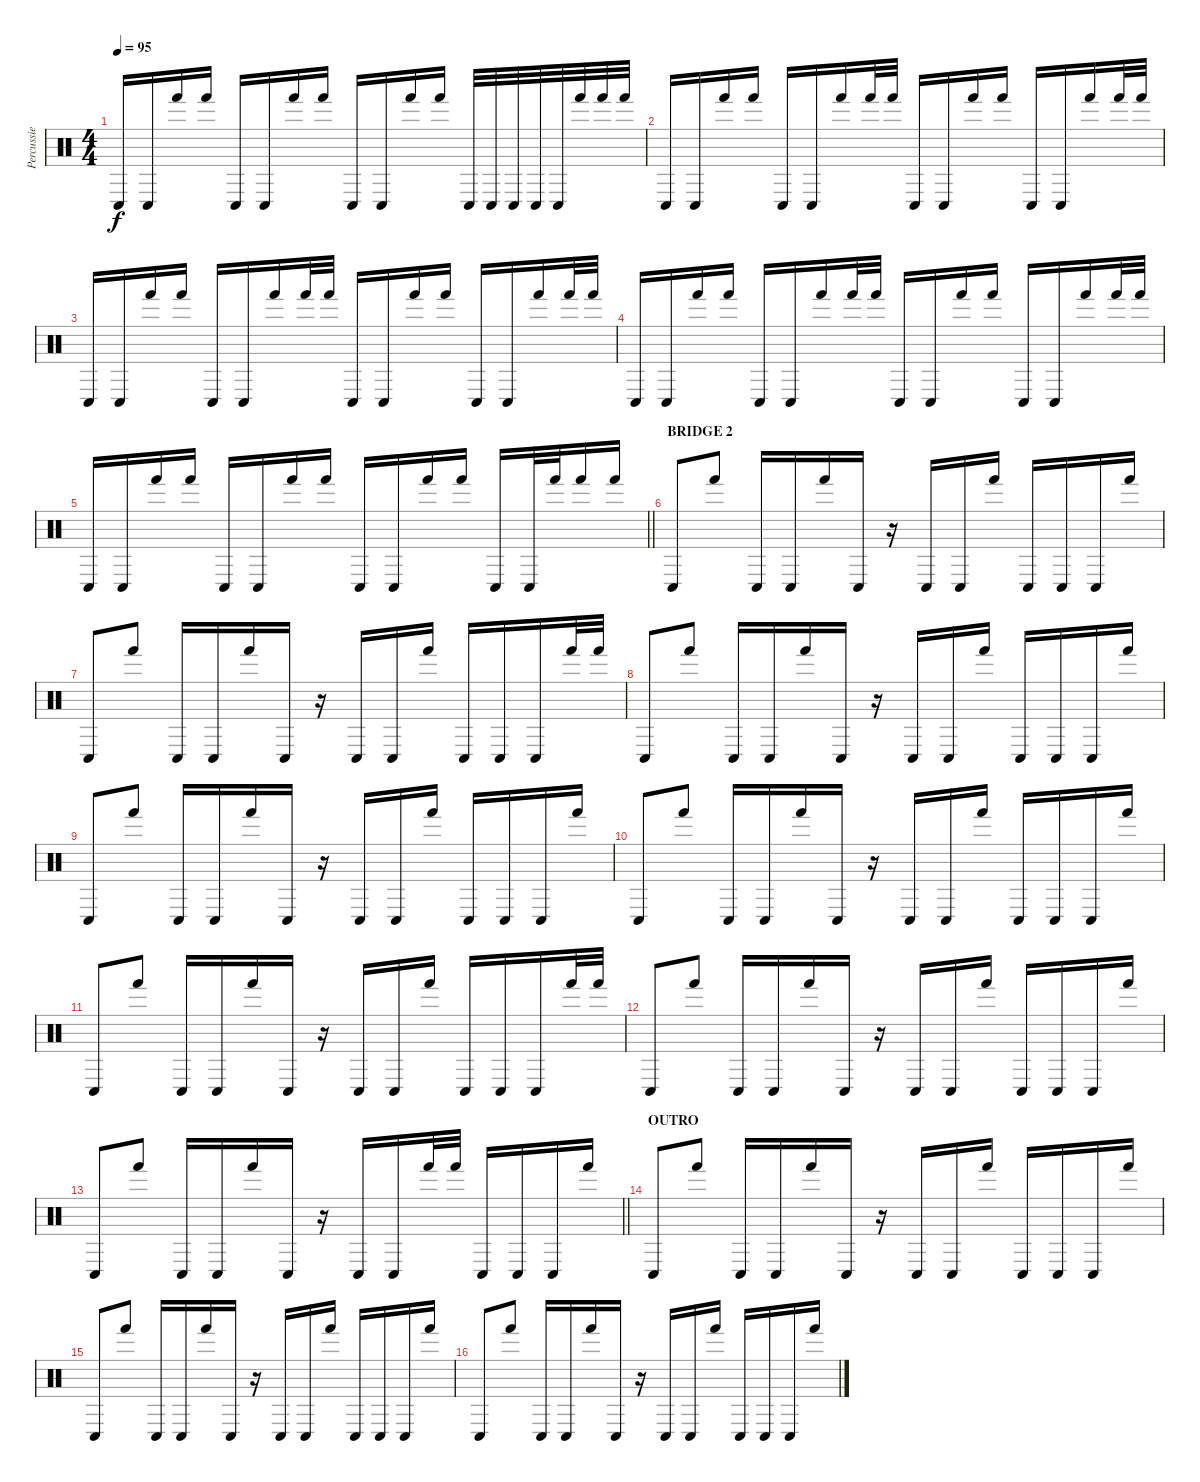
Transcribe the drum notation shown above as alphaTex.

\track ("Percussie" "Percussie") {instrument percussion}
\staff {score}
\articulation defaults
\ts (4 4)
\tempo 95
\clef neutral
\ks c "Conga low (hit)".16{dy f} "Conga low (hit)".16 "Hand (hit)".16 "Hand (hit)".16 "Conga low (hit)".16 "Conga low (hit)".16 "Hand (hit)".16 "Hand (hit)".16 "Conga low (hit)".16 "Conga low (hit)".16 "Hand (hit)".16 "Hand (hit)".16 "Conga low (hit)".32 "Conga low (hit)".32 "Conga low (hit)".32 "Conga low (hit)".32 "Conga low (hit)".32 "Hand (hit)".32 "Hand (hit)".32 "Hand (hit)".32
|
"Conga low (hit)".16 "Conga low (hit)".16 "Hand (hit)".16 "Hand (hit)".16 "Conga low (hit)".16 "Conga low (hit)".16 "Hand (hit)".16 "Hand (hit)".32 "Hand (hit)".32 "Conga low (hit)".16 "Conga low (hit)".16 "Hand (hit)".16 "Hand (hit)".16 "Conga low (hit)".16 "Conga low (hit)".16 "Hand (hit)".16 "Hand (hit)".32 "Hand (hit)".32 |
"Conga low (hit)".16 "Conga low (hit)".16 "Hand (hit)".16 "Hand (hit)".16 "Conga low (hit)".16 "Conga low (hit)".16 "Hand (hit)".16 "Hand (hit)".32 "Hand (hit)".32 "Conga low (hit)".16 "Conga low (hit)".16 "Hand (hit)".16 "Hand (hit)".16 "Conga low (hit)".16 "Conga low (hit)".16 "Hand (hit)".16 "Hand (hit)".32 "Hand (hit)".32 |
"Conga low (hit)".16 "Conga low (hit)".16 "Hand (hit)".16 "Hand (hit)".16 "Conga low (hit)".16 "Conga low (hit)".16 "Hand (hit)".16 "Hand (hit)".32 "Hand (hit)".32 "Conga low (hit)".16 "Conga low (hit)".16 "Hand (hit)".16 "Hand (hit)".16 "Conga low (hit)".16 "Conga low (hit)".16 "Hand (hit)".16 "Hand (hit)".32 "Hand (hit)".32 |
\barLineRight lightlight "Conga low (hit)".16 "Conga low (hit)".16 "Hand (hit)".16 "Hand (hit)".16 "Conga low (hit)".16 "Conga low (hit)".16 "Hand (hit)".16 "Hand (hit)".16 "Conga low (hit)".16 "Conga low (hit)".16 "Hand (hit)".16 "Hand (hit)".16 "Conga low (hit)".16 "Conga low (hit)".32 "Hand (hit)".32 "Hand (hit)".16 "Hand (hit)".16
|
\section ("" "BRIDGE 2")
"Conga low (hit)".8 "Hand (hit)".8 "Conga low (hit)".16 "Conga low (hit)".16 "Hand (hit)".16 "Conga low (hit)".16 r.16 "Conga low (hit)".16 "Conga low (hit)".16 "Hand (hit)".16 "Conga low (hit)".16 "Conga low (hit)".16 "Conga low (hit)".16 "Hand (hit)".16 |
"Conga low (hit)".8 "Hand (hit)".8 "Conga low (hit)".16 "Conga low (hit)".16 "Hand (hit)".16 "Conga low (hit)".16 r.16 "Conga low (hit)".16 "Conga low (hit)".16 "Hand (hit)".16 "Conga low (hit)".16 "Conga low (hit)".16 "Conga low (hit)".16 "Hand (hit)".32 "Hand (hit)".32 |
"Conga low (hit)".8 "Hand (hit)".8 "Conga low (hit)".16 "Conga low (hit)".16 "Hand (hit)".16 "Conga low (hit)".16 r.16 "Conga low (hit)".16 "Conga low (hit)".16 "Hand (hit)".16 "Conga low (hit)".16 "Conga low (hit)".16 "Conga low (hit)".16 "Hand (hit)".16 |
"Conga low (hit)".8 "Hand (hit)".8 "Conga low (hit)".16 "Conga low (hit)".16 "Hand (hit)".16 "Conga low (hit)".16 r.16 "Conga low (hit)".16 "Conga low (hit)".16 "Hand (hit)".16 "Conga low (hit)".16 "Conga low (hit)".16 "Conga low (hit)".16 "Hand (hit)".16 |
"Conga low (hit)".8 "Hand (hit)".8 "Conga low (hit)".16 "Conga low (hit)".16 "Hand (hit)".16 "Conga low (hit)".16 r.16 "Conga low (hit)".16 "Conga low (hit)".16 "Hand (hit)".16 "Conga low (hit)".16 "Conga low (hit)".16 "Conga low (hit)".16 "Hand (hit)".16 |
"Conga low (hit)".8 "Hand (hit)".8 "Conga low (hit)".16 "Conga low (hit)".16 "Hand (hit)".16 "Conga low (hit)".16 r.16 "Conga low (hit)".16 "Conga low (hit)".16 "Hand (hit)".16 "Conga low (hit)".16 "Conga low (hit)".16 "Conga low (hit)".16 "Hand (hit)".32 "Hand (hit)".32 |
"Conga low (hit)".8 "Hand (hit)".8 "Conga low (hit)".16 "Conga low (hit)".16 "Hand (hit)".16 "Conga low (hit)".16 r.16 "Conga low (hit)".16 "Conga low (hit)".16 "Hand (hit)".16 "Conga low (hit)".16 "Conga low (hit)".16 "Conga low (hit)".16 "Hand (hit)".16 |
\barLineRight lightlight "Conga low (hit)".8 "Hand (hit)".8 "Conga low (hit)".16 "Conga low (hit)".16 "Hand (hit)".16 "Conga low (hit)".16
r.16 "Conga low (hit)".16 "Conga low (hit)".16 "Hand (hit)".32 "Hand (hit)".32 "Conga low (hit)".16 "Conga low (hit)".16 "Conga low (hit)".16 "Hand (hit)".16 |
\section ("" "OUTRO")
"Conga low (hit)".8 "Hand (hit)".8 "Conga low (hit)".16 "Conga low (hit)".16 "Hand (hit)".16 "Conga low (hit)".16 r.16 "Conga low (hit)".16 "Conga low (hit)".16 "Hand (hit)".16 "Conga low (hit)".16 "Conga low (hit)".16 "Conga low (hit)".16 "Hand (hit)".16 |
"Conga low (hit)".8 "Hand (hit)".8 "Conga low (hit)".16 "Conga low (hit)".16 "Hand (hit)".16 "Conga low (hit)".16 r.16 "Conga low (hit)".16 "Conga low (hit)".16 "Hand (hit)".16 "Conga low (hit)".16 "Conga low (hit)".16 "Conga low (hit)".16 "Hand (hit)".16 |
"Conga low (hit)".8 "Hand (hit)".8 "Conga low (hit)".16 "Conga low (hit)".16 "Hand (hit)".16 "Conga low (hit)".16 r.16 "Conga low (hit)".16 "Conga low (hit)".16 "Hand (hit)".16 "Conga low (hit)".16 "Conga low (hit)".16 "Conga low (hit)".16 "Hand (hit)".16
